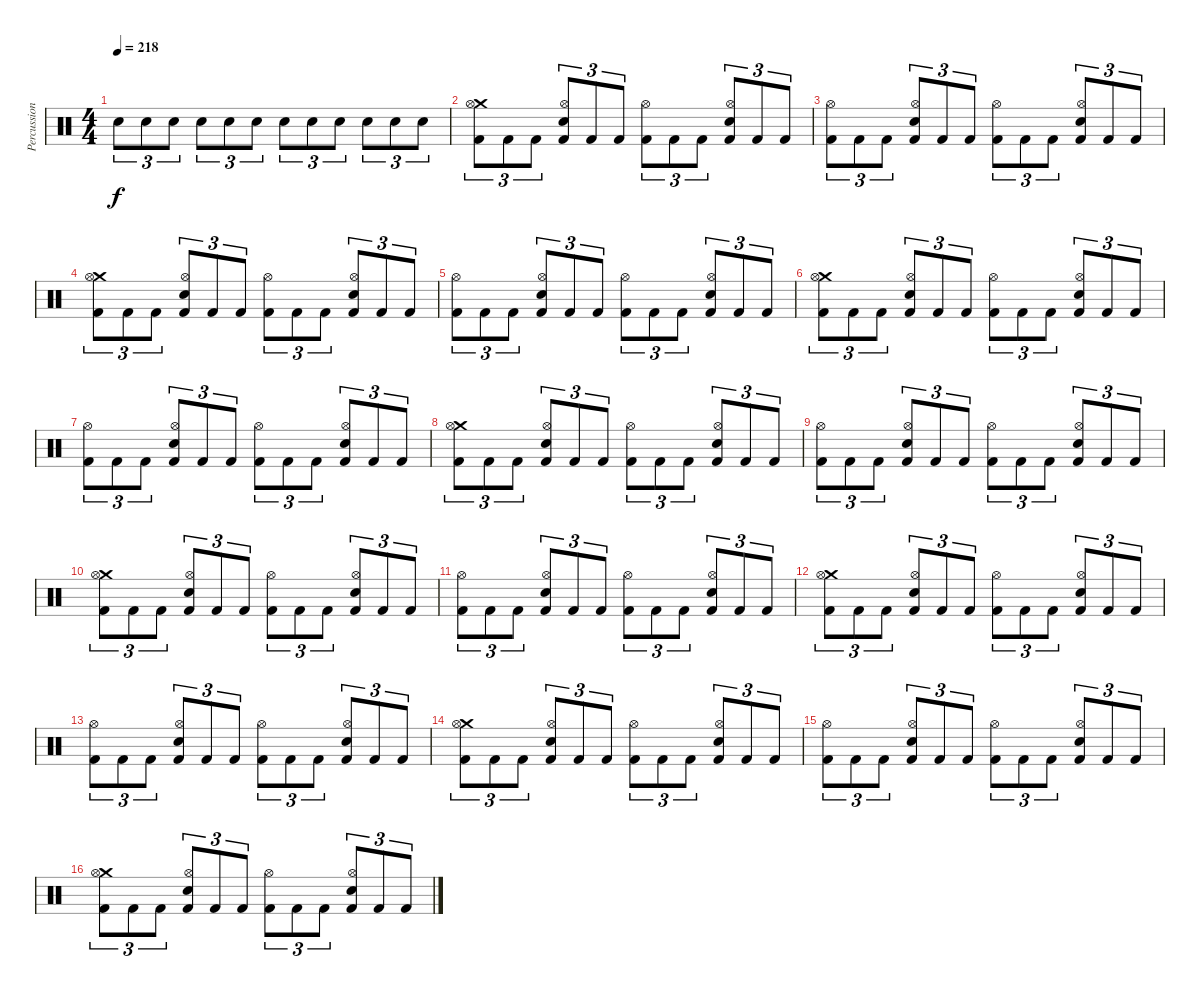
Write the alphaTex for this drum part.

\track ("Percussion" "Percussion") {instrument percussion}
\staff {score}
\articulation defaults
\ts (4 4)
\tempo 218
\clef neutral
\ks c "Electric Snare (hit)".8{tu (3 2) dy f} "Electric Snare (hit)".8{tu (3 2)} "Electric Snare (hit)".8{tu (3 2)} "Electric Snare (hit)".8{tu (3 2)} "Electric Snare (hit)".8{tu (3 2)} "Electric Snare (hit)".8{tu (3 2)} "Electric Snare (hit)".8{tu (3 2)} "Electric Snare (hit)".8{tu (3 2)} "Electric Snare (hit)".8{tu (3 2)} "Electric Snare (hit)".8{tu (3 2)} "Electric Snare (hit)".8{tu (3 2)} "Electric Snare (hit)".8{tu (3 2)}
|
("Crash medium (hit)" "Hi-Hat (open)" "Kick (hit) 2").8{tu (3 2)} "Kick (hit) 2".8{tu (3 2)} "Kick (hit) 2".8{tu (3 2)} ("Hi-Hat (open)" "Electric Snare (hit)" "Kick (hit) 2").8{tu (3 2)} "Kick (hit) 2".8{tu (3 2)} "Kick (hit) 2".8{tu (3 2)} ("Hi-Hat (open)" "Kick (hit) 2").8{tu (3 2)} "Kick (hit) 2".8{tu (3 2)} "Kick (hit) 2".8{tu (3 2)} ("Hi-Hat (open)" "Electric Snare (hit)" "Kick (hit) 2").8{tu (3 2)} "Kick (hit) 2".8{tu (3 2)} "Kick (hit) 2".8{tu (3 2)} |
("Hi-Hat (open)" "Kick (hit) 2").8{tu (3 2)} "Kick (hit) 2".8{tu (3 2)} "Kick (hit) 2".8{tu (3 2)} ("Hi-Hat (open)" "Electric Snare (hit)" "Kick (hit) 2").8{tu (3 2)} "Kick (hit) 2".8{tu (3 2)} "Kick (hit) 2".8{tu (3 2)} ("Hi-Hat (open)" "Kick (hit) 2").8{tu (3 2)} "Kick (hit) 2".8{tu (3 2)} "Kick (hit) 2".8{tu (3 2)} ("Hi-Hat (open)" "Electric Snare (hit)" "Kick (hit) 2").8{tu (3 2)} "Kick (hit) 2".8{tu (3 2)} "Kick (hit) 2".8{tu (3 2)} |
("Crash medium (hit)" "Hi-Hat (open)" "Kick (hit) 2").8{tu (3 2)} "Kick (hit) 2".8{tu (3 2)} "Kick (hit) 2".8{tu (3 2)} ("Hi-Hat (open)" "Electric Snare (hit)" "Kick (hit) 2").8{tu (3 2)} "Kick (hit) 2".8{tu (3 2)} "Kick (hit) 2".8{tu (3 2)} ("Hi-Hat (open)" "Kick (hit) 2").8{tu (3 2)} "Kick (hit) 2".8{tu (3 2)} "Kick (hit) 2".8{tu (3 2)} ("Hi-Hat (open)" "Electric Snare (hit)" "Kick (hit) 2").8{tu (3 2)} "Kick (hit) 2".8{tu (3 2)} "Kick (hit) 2".8{tu (3 2)} |
("Hi-Hat (open)" "Kick (hit) 2").8{tu (3 2)} "Kick (hit) 2".8{tu (3 2)} "Kick (hit) 2".8{tu (3 2)} ("Hi-Hat (open)" "Electric Snare (hit)" "Kick (hit) 2").8{tu (3 2)} "Kick (hit) 2".8{tu (3 2)} "Kick (hit) 2".8{tu (3 2)} ("Hi-Hat (open)" "Kick (hit) 2").8{tu (3 2)} "Kick (hit) 2".8{tu (3 2)} "Kick (hit) 2".8{tu (3 2)} ("Hi-Hat (open)" "Electric Snare (hit)" "Kick (hit) 2").8{tu (3 2)} "Kick (hit) 2".8{tu (3 2)} "Kick (hit) 2".8{tu (3 2)} |
("Crash medium (hit)" "Hi-Hat (open)" "Kick (hit) 2").8{tu (3 2)} "Kick (hit) 2".8{tu (3 2)} "Kick (hit) 2".8{tu (3 2)} ("Hi-Hat (open)" "Electric Snare (hit)" "Kick (hit) 2").8{tu (3 2)} "Kick (hit) 2".8{tu (3 2)} "Kick (hit) 2".8{tu (3 2)} ("Hi-Hat (open)" "Kick (hit) 2").8{tu (3 2)} "Kick (hit) 2".8{tu (3 2)} "Kick (hit) 2".8{tu (3 2)} ("Hi-Hat (open)" "Electric Snare (hit)" "Kick (hit) 2").8{tu (3 2)} "Kick (hit) 2".8{tu (3 2)} "Kick (hit) 2".8{tu (3 2)} |
("Hi-Hat (open)" "Kick (hit) 2").8{tu (3 2)} "Kick (hit) 2".8{tu (3 2)} "Kick (hit) 2".8{tu (3 2)} ("Hi-Hat (open)" "Electric Snare (hit)" "Kick (hit) 2").8{tu (3 2)} "Kick (hit) 2".8{tu (3 2)} "Kick (hit) 2".8{tu (3 2)} ("Hi-Hat (open)" "Kick (hit) 2").8{tu (3 2)} "Kick (hit) 2".8{tu (3 2)} "Kick (hit) 2".8{tu (3 2)} ("Hi-Hat (open)" "Electric Snare (hit)" "Kick (hit) 2").8{tu (3 2)} "Kick (hit) 2".8{tu (3 2)} "Kick (hit) 2".8{tu (3 2)} |
("Crash medium (hit)" "Hi-Hat (open)" "Kick (hit) 2").8{tu (3 2)} "Kick (hit) 2".8{tu (3 2)} "Kick (hit) 2".8{tu (3 2)} ("Hi-Hat (open)" "Electric Snare (hit)" "Kick (hit) 2").8{tu (3 2)} "Kick (hit) 2".8{tu (3 2)} "Kick (hit) 2".8{tu (3 2)} ("Hi-Hat (open)" "Kick (hit) 2").8{tu (3 2)} "Kick (hit) 2".8{tu (3 2)} "Kick (hit) 2".8{tu (3 2)} ("Hi-Hat (open)" "Electric Snare (hit)" "Kick (hit) 2").8{tu (3 2)} "Kick (hit) 2".8{tu (3 2)} "Kick (hit) 2".8{tu (3 2)} |
("Hi-Hat (open)" "Kick (hit) 2").8{tu (3 2)} "Kick (hit) 2".8{tu (3 2)} "Kick (hit) 2".8{tu (3 2)} ("Hi-Hat (open)" "Electric Snare (hit)" "Kick (hit) 2").8{tu (3 2)} "Kick (hit) 2".8{tu (3 2)} "Kick (hit) 2".8{tu (3 2)} ("Hi-Hat (open)" "Kick (hit) 2").8{tu (3 2)} "Kick (hit) 2".8{tu (3 2)} "Kick (hit) 2".8{tu (3 2)} ("Hi-Hat (open)" "Electric Snare (hit)" "Kick (hit) 2").8{tu (3 2)} "Kick (hit) 2".8{tu (3 2)} "Kick (hit) 2".8{tu (3 2)} |
("Crash medium (hit)" "Hi-Hat (open)" "Kick (hit) 2").8{tu (3 2)} "Kick (hit) 2".8{tu (3 2)} "Kick (hit) 2".8{tu (3 2)} ("Hi-Hat (open)" "Electric Snare (hit)" "Kick (hit) 2").8{tu (3 2)} "Kick (hit) 2".8{tu (3 2)} "Kick (hit) 2".8{tu (3 2)} ("Hi-Hat (open)" "Kick (hit) 2").8{tu (3 2)} "Kick (hit) 2".8{tu (3 2)} "Kick (hit) 2".8{tu (3 2)} ("Hi-Hat (open)" "Electric Snare (hit)" "Kick (hit) 2").8{tu (3 2)} "Kick (hit) 2".8{tu (3 2)} "Kick (hit) 2".8{tu (3 2)} |
("Hi-Hat (open)" "Kick (hit) 2").8{tu (3 2)} "Kick (hit) 2".8{tu (3 2)} "Kick (hit) 2".8{tu (3 2)} ("Hi-Hat (open)" "Electric Snare (hit)" "Kick (hit) 2").8{tu (3 2)} "Kick (hit) 2".8{tu (3 2)} "Kick (hit) 2".8{tu (3 2)} ("Hi-Hat (open)" "Kick (hit) 2").8{tu (3 2)} "Kick (hit) 2".8{tu (3 2)} "Kick (hit) 2".8{tu (3 2)} ("Hi-Hat (open)" "Electric Snare (hit)" "Kick (hit) 2").8{tu (3 2)} "Kick (hit) 2".8{tu (3 2)} "Kick (hit) 2".8{tu (3 2)} |
("Crash medium (hit)" "Hi-Hat (open)" "Kick (hit) 2").8{tu (3 2)} "Kick (hit) 2".8{tu (3 2)} "Kick (hit) 2".8{tu (3 2)} ("Hi-Hat (open)" "Electric Snare (hit)" "Kick (hit) 2").8{tu (3 2)} "Kick (hit) 2".8{tu (3 2)} "Kick (hit) 2".8{tu (3 2)} ("Hi-Hat (open)" "Kick (hit) 2").8{tu (3 2)} "Kick (hit) 2".8{tu (3 2)} "Kick (hit) 2".8{tu (3 2)} ("Hi-Hat (open)" "Electric Snare (hit)" "Kick (hit) 2").8{tu (3 2)} "Kick (hit) 2".8{tu (3 2)} "Kick (hit) 2".8{tu (3 2)} |
("Hi-Hat (open)" "Kick (hit) 2").8{tu (3 2)} "Kick (hit) 2".8{tu (3 2)} "Kick (hit) 2".8{tu (3 2)} ("Hi-Hat (open)" "Electric Snare (hit)" "Kick (hit) 2").8{tu (3 2)} "Kick (hit) 2".8{tu (3 2)} "Kick (hit) 2".8{tu (3 2)} ("Hi-Hat (open)" "Kick (hit) 2").8{tu (3 2)} "Kick (hit) 2".8{tu (3 2)} "Kick (hit) 2".8{tu (3 2)} ("Hi-Hat (open)" "Electric Snare (hit)" "Kick (hit) 2").8{tu (3 2)} "Kick (hit) 2".8{tu (3 2)} "Kick (hit) 2".8{tu (3 2)} |
("Crash medium (hit)" "Hi-Hat (open)" "Kick (hit) 2").8{tu (3 2)} "Kick (hit) 2".8{tu (3 2)} "Kick (hit) 2".8{tu (3 2)} ("Hi-Hat (open)" "Electric Snare (hit)" "Kick (hit) 2").8{tu (3 2)} "Kick (hit) 2".8{tu (3 2)} "Kick (hit) 2".8{tu (3 2)} ("Hi-Hat (open)" "Kick (hit) 2").8{tu (3 2)} "Kick (hit) 2".8{tu (3 2)} "Kick (hit) 2".8{tu (3 2)} ("Hi-Hat (open)" "Electric Snare (hit)" "Kick (hit) 2").8{tu (3 2)} "Kick (hit) 2".8{tu (3 2)} "Kick (hit) 2".8{tu (3 2)} |
("Hi-Hat (open)" "Kick (hit) 2").8{tu (3 2)} "Kick (hit) 2".8{tu (3 2)} "Kick (hit) 2".8{tu (3 2)} ("Hi-Hat (open)" "Electric Snare (hit)" "Kick (hit) 2").8{tu (3 2)} "Kick (hit) 2".8{tu (3 2)} "Kick (hit) 2".8{tu (3 2)} ("Hi-Hat (open)" "Kick (hit) 2").8{tu (3 2)} "Kick (hit) 2".8{tu (3 2)} "Kick (hit) 2".8{tu (3 2)} ("Hi-Hat (open)" "Electric Snare (hit)" "Kick (hit) 2").8{tu (3 2)} "Kick (hit) 2".8{tu (3 2)} "Kick (hit) 2".8{tu (3 2)} |
("Crash medium (hit)" "Hi-Hat (open)" "Kick (hit) 2").8{tu (3 2)} "Kick (hit) 2".8{tu (3 2)} "Kick (hit) 2".8{tu (3 2)} ("Hi-Hat (open)" "Electric Snare (hit)" "Kick (hit) 2").8{tu (3 2)} "Kick (hit) 2".8{tu (3 2)} "Kick (hit) 2".8{tu (3 2)} ("Hi-Hat (open)" "Kick (hit) 2").8{tu (3 2)} "Kick (hit) 2".8{tu (3 2)} "Kick (hit) 2".8{tu (3 2)} ("Hi-Hat (open)" "Electric Snare (hit)" "Kick (hit) 2").8{tu (3 2)} "Kick (hit) 2".8{tu (3 2)} "Kick (hit) 2".8{tu (3 2)}
